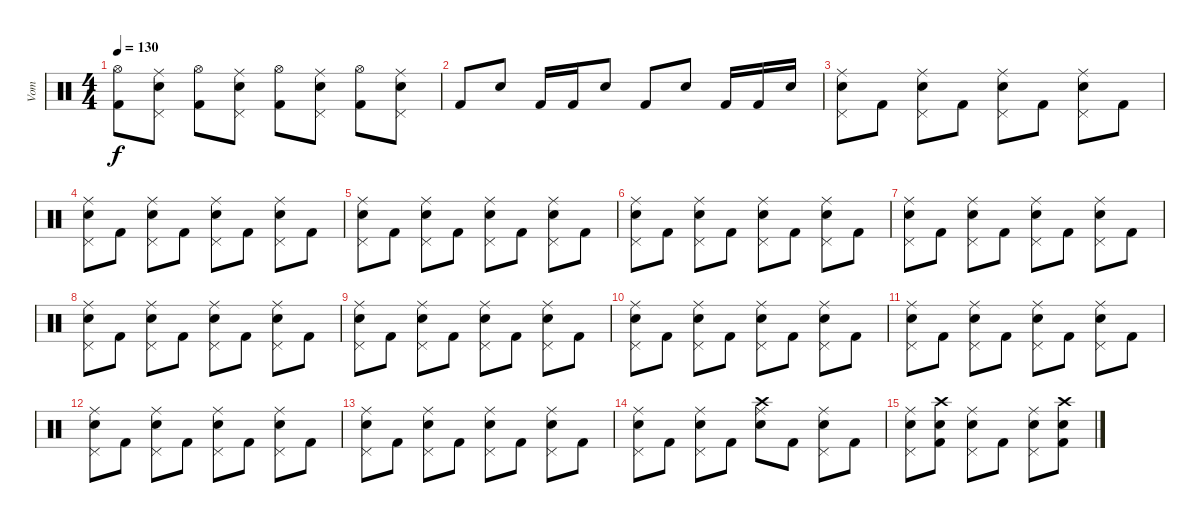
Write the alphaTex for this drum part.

\track ("Vom" "Vom") {instrument percussion}
\staff {score}
\articulation defaults
\ts (4 4)
\tempo 130
\clef neutral
\ks c
("Kick (hit) 2" "Hi-Hat (open)").8{dy f} ("Snare (hit) 2" "Pedal Hi-Hat (hit)" "Ride (middle)").8 ("Kick (hit) 2" "Hi-Hat (open)").8 ("Snare (hit) 2" "Pedal Hi-Hat (hit)" "Ride (middle)").8 ("Kick (hit) 2" "Hi-Hat (open)").8 ("Snare (hit) 2" "Pedal Hi-Hat (hit)" "Ride (middle)").8 ("Kick (hit) 2" "Hi-Hat (open)").8 ("Snare (hit) 2" "Pedal Hi-Hat (hit)" "Ride (middle)").8 |
"Kick (hit) 2".8 "Snare (hit) 2".8 "Kick (hit) 2".16 "Kick (hit) 2".16 "Snare (hit) 2".8 "Kick (hit) 2".8 "Snare (hit) 2".8 "Kick (hit) 2".16 "Kick (hit) 2".16 "Snare (hit) 2".16 |
("Snare (hit) 2" "Ride (middle)" "Pedal Hi-Hat (hit)").8 "Kick (hit) 2".8 ("Snare (hit) 2" "Ride (middle)" "Pedal Hi-Hat (hit)").8 "Kick (hit) 2".8 ("Snare (hit) 2" "Ride (middle)" "Pedal Hi-Hat (hit)").8 "Kick (hit) 2".8 ("Snare (hit) 2" "Ride (middle)" "Pedal Hi-Hat (hit)").8 "Kick (hit) 2".8 |
("Snare (hit) 2" "Ride (middle)" "Pedal Hi-Hat (hit)").8 "Kick (hit) 2".8 ("Snare (hit) 2" "Ride (middle)" "Pedal Hi-Hat (hit)").8 "Kick (hit) 2".8 ("Snare (hit) 2" "Ride (middle)" "Pedal Hi-Hat (hit)").8 "Kick (hit) 2".8 ("Snare (hit) 2" "Ride (middle)" "Pedal Hi-Hat (hit)").8 "Kick (hit) 2".8 |
("Snare (hit) 2" "Ride (middle)" "Pedal Hi-Hat (hit)").8 "Kick (hit) 2".8 ("Snare (hit) 2" "Ride (middle)" "Pedal Hi-Hat (hit)").8 "Kick (hit) 2".8 ("Snare (hit) 2" "Ride (middle)" "Pedal Hi-Hat (hit)").8 "Kick (hit) 2".8 ("Snare (hit) 2" "Ride (middle)" "Pedal Hi-Hat (hit)").8 "Kick (hit) 2".8 |
("Snare (hit) 2" "Ride (middle)" "Pedal Hi-Hat (hit)").8 "Kick (hit) 2".8 ("Snare (hit) 2" "Ride (middle)" "Pedal Hi-Hat (hit)").8 "Kick (hit) 2".8 ("Snare (hit) 2" "Ride (middle)" "Pedal Hi-Hat (hit)").8 "Kick (hit) 2".8 ("Snare (hit) 2" "Ride (middle)" "Pedal Hi-Hat (hit)").8 "Kick (hit) 2".8 |
("Snare (hit) 2" "Ride (middle)" "Pedal Hi-Hat (hit)").8 "Kick (hit) 2".8 ("Snare (hit) 2" "Ride (middle)" "Pedal Hi-Hat (hit)").8 "Kick (hit) 2".8 ("Snare (hit) 2" "Ride (middle)" "Pedal Hi-Hat (hit)").8 "Kick (hit) 2".8 ("Snare (hit) 2" "Ride (middle)" "Pedal Hi-Hat (hit)").8 "Kick (hit) 2".8 |
("Snare (hit) 2" "Ride (middle)" "Pedal Hi-Hat (hit)").8 "Kick (hit) 2".8 ("Snare (hit) 2" "Ride (middle)" "Pedal Hi-Hat (hit)").8 "Kick (hit) 2".8 ("Snare (hit) 2" "Ride (middle)" "Pedal Hi-Hat (hit)").8 "Kick (hit) 2".8 ("Snare (hit) 2" "Ride (middle)" "Pedal Hi-Hat (hit)").8 "Kick (hit) 2".8 |
("Snare (hit) 2" "Ride (middle)" "Pedal Hi-Hat (hit)").8 "Kick (hit) 2".8 ("Snare (hit) 2" "Ride (middle)" "Pedal Hi-Hat (hit)").8 "Kick (hit) 2".8 ("Snare (hit) 2" "Ride (middle)" "Pedal Hi-Hat (hit)").8 "Kick (hit) 2".8 ("Snare (hit) 2" "Ride (middle)" "Pedal Hi-Hat (hit)").8 "Kick (hit) 2".8 |
("Snare (hit) 2" "Ride (middle)" "Pedal Hi-Hat (hit)").8 "Kick (hit) 2".8 ("Snare (hit) 2" "Ride (middle)" "Pedal Hi-Hat (hit)").8 "Kick (hit) 2".8 ("Snare (hit) 2" "Ride (middle)" "Pedal Hi-Hat (hit)").8 "Kick (hit) 2".8 ("Snare (hit) 2" "Ride (middle)" "Pedal Hi-Hat (hit)").8 "Kick (hit) 2".8 |
("Snare (hit) 2" "Ride (middle)" "Pedal Hi-Hat (hit)").8 "Kick (hit) 2".8 ("Snare (hit) 2" "Ride (middle)" "Pedal Hi-Hat (hit)").8 "Kick (hit) 2".8 ("Snare (hit) 2" "Ride (middle)" "Pedal Hi-Hat (hit)").8 "Kick (hit) 2".8 ("Snare (hit) 2" "Ride (middle)" "Pedal Hi-Hat (hit)").8 "Kick (hit) 2".8 |
("Snare (hit) 2" "Ride (middle)" "Pedal Hi-Hat (hit)").8 "Kick (hit) 2".8 ("Snare (hit) 2" "Ride (middle)" "Pedal Hi-Hat (hit)").8 "Kick (hit) 2".8 ("Snare (hit) 2" "Ride (middle)" "Pedal Hi-Hat (hit)").8 "Kick (hit) 2".8 ("Snare (hit) 2" "Ride (middle)" "Pedal Hi-Hat (hit)").8 "Kick (hit) 2".8 |
("Snare (hit) 2" "Ride (middle)" "Pedal Hi-Hat (hit)").8 "Kick (hit) 2".8 ("Snare (hit) 2" "Ride (middle)" "Pedal Hi-Hat (hit)").8 "Kick (hit) 2".8 ("Snare (hit) 2" "Ride (middle)" "Pedal Hi-Hat (hit)").8 "Kick (hit) 2".8 ("Snare (hit) 2" "Ride (middle)" "Pedal Hi-Hat (hit)").8 "Kick (hit) 2".8 |
("Snare (hit) 2" "Ride (middle)" "Pedal Hi-Hat (hit)").8 "Kick (hit) 2".8 ("Snare (hit) 2" "Ride (middle)" "Pedal Hi-Hat (hit)").8 "Kick (hit) 2".8 ("Snare (hit) 2" "Ride (middle)" "Crash high (hit)").8 "Kick (hit) 2".8 ("Snare (hit) 2" "Ride (middle)" "Pedal Hi-Hat (hit)").8 "Kick (hit) 2".8 |
("Snare (hit) 2" "Ride (middle)" "Pedal Hi-Hat (hit)").8 ("Kick (hit) 2" "Crash high (hit)" "Snare (hit) 2").8 ("Snare (hit) 2" "Ride (middle)" "Pedal Hi-Hat (hit)").8 "Kick (hit) 2".8 ("Snare (hit) 2" "Ride (middle)" "Pedal Hi-Hat (hit)").8 ("Kick (hit) 2" "Crash high (hit)" "Snare (hit) 2").8
